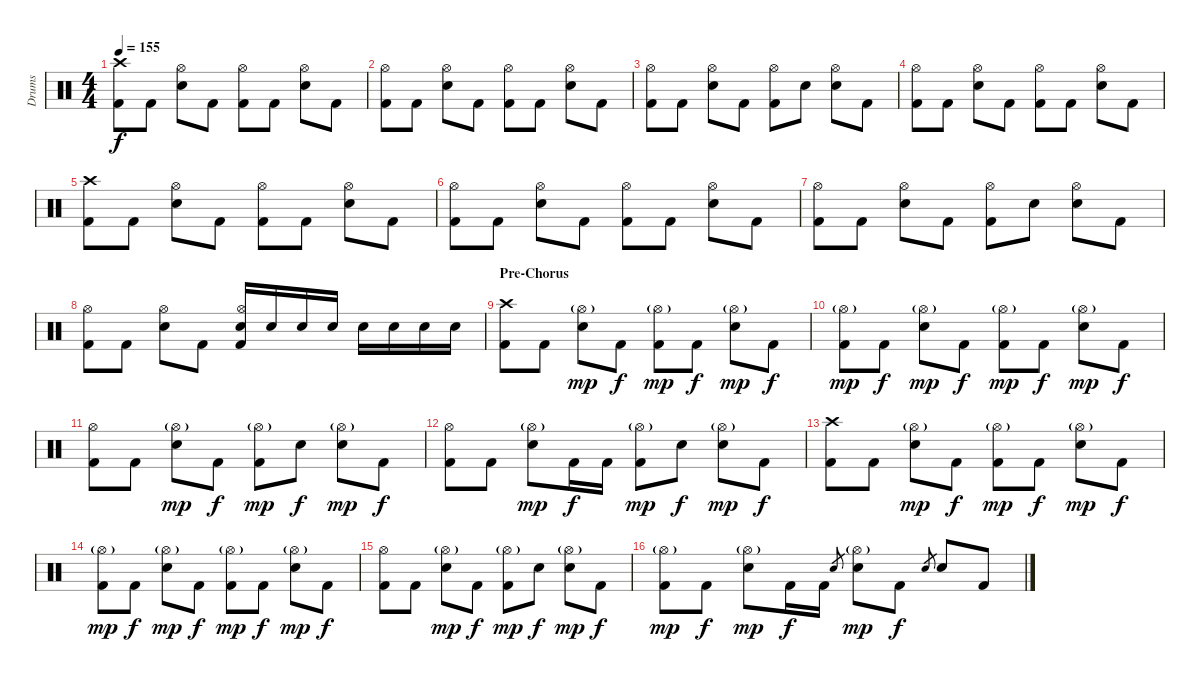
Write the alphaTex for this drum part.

\track ("Drums" "Drums") {instrument percussion}
\staff {score}
\articulation defaults
\ts (4 4)
\tempo 155
\clef neutral
\ks c
("Crash high (hit)" "Kick (hit) 2").8{dy f} "Kick (hit) 2".8 ("Hi-Hat (open)" "Electric Snare (hit)").8 "Kick (hit) 2".8 ("Hi-Hat (open)" "Kick (hit) 2").8 "Kick (hit) 2".8 ("Hi-Hat (open)" "Electric Snare (hit)").8 "Kick (hit) 2".8 |
("Hi-Hat (open)" "Kick (hit) 2").8 "Kick (hit) 2".8 ("Hi-Hat (open)" "Electric Snare (hit)").8 "Kick (hit) 2".8 ("Hi-Hat (open)" "Kick (hit) 2").8 "Kick (hit) 2".8 ("Hi-Hat (open)" "Electric Snare (hit)").8 "Kick (hit) 2".8 |
("Hi-Hat (open)" "Kick (hit) 2").8 "Kick (hit) 2".8 ("Hi-Hat (open)" "Electric Snare (hit)").8 "Kick (hit) 2".8 ("Hi-Hat (open)" "Kick (hit) 2").8 "Electric Snare (hit)".8 ("Hi-Hat (open)" "Electric Snare (hit)").8 "Kick (hit) 2".8 |
("Hi-Hat (open)" "Kick (hit) 2").8 "Kick (hit) 2".8 ("Hi-Hat (open)" "Electric Snare (hit)").8 "Kick (hit) 2".8 ("Hi-Hat (open)" "Kick (hit) 2").8 "Kick (hit) 2".8 ("Hi-Hat (open)" "Electric Snare (hit)").8 "Kick (hit) 2".8 |
("Crash high (hit)" "Kick (hit) 2").8 "Kick (hit) 2".8 ("Hi-Hat (open)" "Electric Snare (hit)").8 "Kick (hit) 2".8 ("Hi-Hat (open)" "Kick (hit) 2").8 "Kick (hit) 2".8 ("Hi-Hat (open)" "Electric Snare (hit)").8 "Kick (hit) 2".8 |
("Hi-Hat (open)" "Kick (hit) 2").8 "Kick (hit) 2".8 ("Hi-Hat (open)" "Electric Snare (hit)").8 "Kick (hit) 2".8 ("Hi-Hat (open)" "Kick (hit) 2").8 "Kick (hit) 2".8 ("Hi-Hat (open)" "Electric Snare (hit)").8 "Kick (hit) 2".8 |
("Hi-Hat (open)" "Kick (hit) 2").8 "Kick (hit) 2".8 ("Hi-Hat (open)" "Electric Snare (hit)").8 "Kick (hit) 2".8 ("Hi-Hat (open)" "Kick (hit) 2").8 "Electric Snare (hit)".8 ("Hi-Hat (open)" "Electric Snare (hit)").8 "Kick (hit) 2".8 |
("Hi-Hat (open)" "Kick (hit) 2").8 "Kick (hit) 2".8 ("Hi-Hat (open)" "Electric Snare (hit)").8 "Kick (hit) 2".8 ("Hi-Hat (open)" "Electric Snare (hit)" "Kick (hit) 2").16 "Electric Snare (hit)".16 "Electric Snare (hit)".16 "Electric Snare (hit)".16 "Electric Snare (hit)".16 "Electric Snare (hit)".16 "Electric Snare (hit)".16 "Electric Snare (hit)".16 |
\section ("" "Pre-Chorus")
("Crash high (hit)" "Kick (hit) 2").8 "Kick (hit) 2".8 ("Hi-Hat (open)"{g} "Electric Snare (hit)").8{dy mp} "Kick (hit) 2".8{dy f} ("Hi-Hat (open)"{g} "Kick (hit) 2").8{dy mp} "Kick (hit) 2".8{dy f} ("Hi-Hat (open)"{g} "Electric Snare (hit)").8{dy mp} "Kick (hit) 2".8{dy f} |
("Hi-Hat (open)"{g} "Kick (hit) 2").8{dy mp} "Kick (hit) 2".8{dy f} ("Hi-Hat (open)"{g} "Electric Snare (hit)").8{dy mp} "Kick (hit) 2".8{dy f} ("Hi-Hat (open)"{g} "Kick (hit) 2").8{dy mp} "Kick (hit) 2".8{dy f} ("Hi-Hat (open)"{g} "Electric Snare (hit)").8{dy mp} "Kick (hit) 2".8{dy f} |
("Hi-Hat (open)" "Kick (hit) 2").8 "Kick (hit) 2".8 ("Hi-Hat (open)"{g} "Electric Snare (hit)").8{dy mp} "Kick (hit) 2".8{dy f} ("Hi-Hat (open)"{g} "Kick (hit) 2").8{dy mp} "Electric Snare (hit)".8{dy f} ("Hi-Hat (open)"{g} "Electric Snare (hit)").8{dy mp} "Kick (hit) 2".8{dy f} |
("Hi-Hat (open)" "Kick (hit) 2").8 "Kick (hit) 2".8 ("Hi-Hat (open)"{g} "Electric Snare (hit)").8{dy mp} "Kick (hit) 2".16{dy f} "Kick (hit) 2".16 ("Hi-Hat (open)"{g} "Kick (hit) 2").8{dy mp} "Electric Snare (hit)".8{dy f} ("Hi-Hat (open)"{g} "Electric Snare (hit)").8{dy mp} "Kick (hit) 2".8{dy f} |
("Crash high (hit)" "Kick (hit) 2").8 "Kick (hit) 2".8 ("Hi-Hat (open)"{g} "Electric Snare (hit)").8{dy mp} "Kick (hit) 2".8{dy f} ("Hi-Hat (open)"{g} "Kick (hit) 2").8{dy mp} "Kick (hit) 2".8{dy f} ("Hi-Hat (open)"{g} "Electric Snare (hit)").8{dy mp} "Kick (hit) 2".8{dy f} |
("Hi-Hat (open)"{g} "Kick (hit) 2").8{dy mp} "Kick (hit) 2".8{dy f} ("Hi-Hat (open)"{g} "Electric Snare (hit)").8{dy mp} "Kick (hit) 2".8{dy f} ("Hi-Hat (open)"{g} "Kick (hit) 2").8{dy mp} "Kick (hit) 2".8{dy f} ("Hi-Hat (open)"{g} "Electric Snare (hit)").8{dy mp} "Kick (hit) 2".8{dy f} |
("Hi-Hat (open)" "Kick (hit) 2").8 "Kick (hit) 2".8 ("Hi-Hat (open)"{g} "Electric Snare (hit)").8{dy mp} "Kick (hit) 2".8{dy f} ("Hi-Hat (open)"{g} "Kick (hit) 2").8{dy mp} "Electric Snare (hit)".8{dy f} ("Hi-Hat (open)"{g} "Electric Snare (hit)").8{dy mp} "Kick (hit) 2".8{dy f} |
("Hi-Hat (open)"{g} "Kick (hit) 2").8{dy mp} "Kick (hit) 2".8{dy f} ("Hi-Hat (open)"{g} "Electric Snare (hit)").8{dy mp} "Kick (hit) 2".16{dy f} "Kick (hit) 2".16 "Electric Snare (hit)".8{gr} ("Hi-Hat (open)"{g} "Electric Snare (hit)").8{dy mp} "Kick (hit) 2".8{dy f} "Electric Snare (hit)".8{gr} "Electric Snare (hit)".8 "Kick (hit) 2".8
